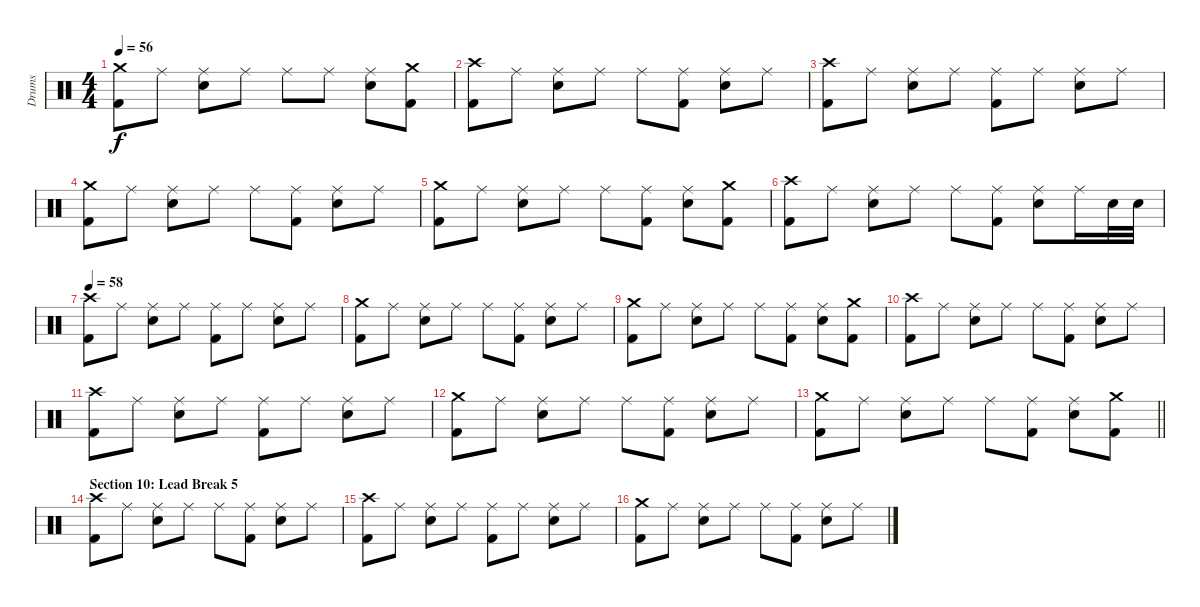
\track ("Drums" "Drums") {instrument percussion}
\staff {score}
\articulation defaults
\ts (4 4)
\tempo 56
\clef neutral
\ks c
("Crash medium (hit)" "Kick (hit) 2").8{dy f} "Ride (middle)".8 ("Ride (middle)" "Electric Snare (hit)").8 "Ride (middle)".8 "Ride (middle)".8 "Ride (middle)".8 ("Ride (middle)" "Electric Snare (hit)").8 ("Crash medium (hit)" "Kick (hit) 2").8 |
("Crash high (hit)" "Kick (hit) 2").8 "Ride (middle)".8 ("Ride (middle)" "Electric Snare (hit)").8 "Ride (middle)".8 "Ride (middle)".8 ("Ride (middle)" "Kick (hit) 2").8 ("Ride (middle)" "Electric Snare (hit)").8 "Ride (middle)".8 |
("Crash high (hit)" "Kick (hit) 2").8 "Ride (middle)".8 ("Ride (middle)" "Electric Snare (hit)").8 "Ride (middle)".8 ("Ride (middle)" "Kick (hit) 2").8 "Ride (middle)".8 ("Ride (middle)" "Electric Snare (hit)").8 "Ride (middle)".8 |
("Crash medium (hit)" "Kick (hit) 2").8 "Ride (middle)".8 ("Ride (middle)" "Electric Snare (hit)").8 "Ride (middle)".8 "Ride (middle)".8 ("Ride (middle)" "Kick (hit) 2").8 ("Ride (middle)" "Electric Snare (hit)").8 "Ride (middle)".8 |
("Crash medium (hit)" "Kick (hit) 2").8 "Ride (middle)".8 ("Ride (middle)" "Electric Snare (hit)").8 "Ride (middle)".8 "Ride (middle)".8 ("Ride (middle)" "Kick (hit) 2").8 ("Ride (middle)" "Electric Snare (hit)").8 ("Crash medium (hit)" "Kick (hit) 2").8 |
("Crash high (hit)" "Kick (hit) 2").8 "Ride (middle)".8 ("Ride (middle)" "Electric Snare (hit)").8 "Ride (middle)".8 "Ride (middle)".8 ("Ride (middle)" "Kick (hit) 2").8 ("Ride (middle)" "Electric Snare (hit)").8 "Ride (middle)".16 "Electric Snare (hit)".32 "Electric Snare (hit)".32 |
\tempo 58
("Crash high (hit)" "Kick (hit) 2").8 "Ride (middle)".8 ("Ride (middle)" "Electric Snare (hit)").8 "Ride (middle)".8 ("Ride (middle)" "Kick (hit) 2").8 "Ride (middle)".8 ("Ride (middle)" "Electric Snare (hit)").8 "Ride (middle)".8 |
("Crash medium (hit)" "Kick (hit) 2").8 "Ride (middle)".8 ("Ride (middle)" "Electric Snare (hit)").8 "Ride (middle)".8 "Ride (middle)".8 ("Ride (middle)" "Kick (hit) 2").8 ("Ride (middle)" "Electric Snare (hit)").8 "Ride (middle)".8 |
("Crash medium (hit)" "Kick (hit) 2").8 "Ride (middle)".8 ("Ride (middle)" "Electric Snare (hit)").8 "Ride (middle)".8 "Ride (middle)".8 ("Ride (middle)" "Kick (hit) 2").8 ("Ride (middle)" "Electric Snare (hit)").8 ("Crash medium (hit)" "Kick (hit) 2").8 |
("Crash high (hit)" "Kick (hit) 2").8 "Ride (middle)".8 ("Ride (middle)" "Electric Snare (hit)").8 "Ride (middle)".8 "Ride (middle)".8 ("Ride (middle)" "Kick (hit) 2").8 ("Ride (middle)" "Electric Snare (hit)").8 "Ride (middle)".8 |
("Crash high (hit)" "Kick (hit) 2").8 "Ride (middle)".8 ("Ride (middle)" "Electric Snare (hit)").8 "Ride (middle)".8 ("Ride (middle)" "Kick (hit) 2").8 "Ride (middle)".8 ("Ride (middle)" "Electric Snare (hit)").8 "Ride (middle)".8 |
("Crash medium (hit)" "Kick (hit) 2").8 "Ride (middle)".8 ("Ride (middle)" "Electric Snare (hit)").8 "Ride (middle)".8 "Ride (middle)".8 ("Ride (middle)" "Kick (hit) 2").8 ("Ride (middle)" "Electric Snare (hit)").8 "Ride (middle)".8 |
\barLineRight lightlight
("Crash medium (hit)" "Kick (hit) 2").8 "Ride (middle)".8 ("Ride (middle)" "Electric Snare (hit)").8 "Ride (middle)".8 "Ride (middle)".8 ("Ride (middle)" "Kick (hit) 2").8 ("Ride (middle)" "Electric Snare (hit)").8 ("Crash medium (hit)" "Kick (hit) 2").8 |
\section ("" "Section 10: Lead Break 5")
("Crash high (hit)" "Kick (hit) 2").8 "Ride (middle)".8 ("Ride (middle)" "Electric Snare (hit)").8 "Ride (middle)".8 "Ride (middle)".8 ("Ride (middle)" "Kick (hit) 2").8 ("Ride (middle)" "Electric Snare (hit)").8 "Ride (middle)".8 |
("Crash high (hit)" "Kick (hit) 2").8 "Ride (middle)".8 ("Ride (middle)" "Electric Snare (hit)").8 "Ride (middle)".8 ("Ride (middle)" "Kick (hit) 2").8 "Ride (middle)".8 ("Ride (middle)" "Electric Snare (hit)").8 "Ride (middle)".8 |
("Crash medium (hit)" "Kick (hit) 2").8 "Ride (middle)".8 ("Ride (middle)" "Electric Snare (hit)").8 "Ride (middle)".8 "Ride (middle)".8 ("Ride (middle)" "Kick (hit) 2").8 ("Ride (middle)" "Electric Snare (hit)").8 "Ride (middle)".8
